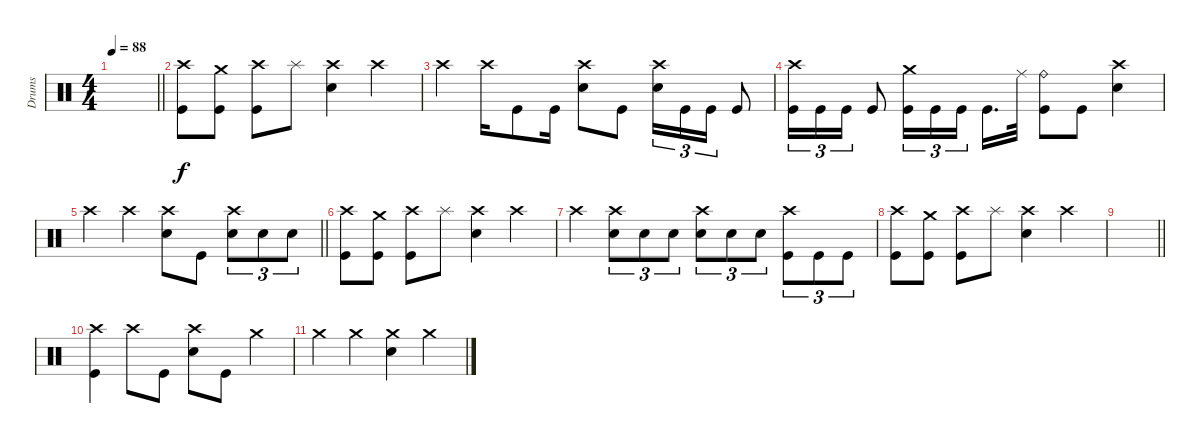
\track ("Drums" "Drums") {instrument percussion}
\staff
\articulation defaults
\ts (4 4)
\tempo 88
\clef neutral
\barLineRight lightlight
\ks c
|
\section ("" "")
("Crash high (hit)" "Kick (hit)").8 ("Crash medium (hit)" "Kick (hit)").8 ("Crash high (hit)" "Kick (hit)").8 "Splash (hit)".8 ("Crash high (hit)" "Electric Snare (hit)").4 "Crash high (hit)".4 |
"Crash high (hit)".4 "Crash high (hit)".16 "Kick (hit)".8 "Kick (hit)".16 ("Crash high (hit)" "Electric Snare (hit)").8 "Kick (hit)".8 ("Crash high (hit)" "Electric Snare (hit)").16{tu (3 2)} "Kick (hit)".16{tu (3 2)} "Kick (hit)".16{tu (3 2)} "Kick (hit)".8 |
("Crash high (hit)" "Kick (hit)").16{tu (3 2)} "Kick (hit)".16{tu (3 2)} "Kick (hit)".16{tu (3 2)} "Kick (hit)".8 ("Crash medium (hit)" "Kick (hit)").16{tu (3 2)} "Kick (hit)".16{tu (3 2)} "Kick (hit)".16{tu (3 2) beam splitsecondary} "Kick (hit)".16{d} "Ride (middle)".32 ("Ride (bell)" "Kick (hit)").8 "Kick (hit)".8 ("Crash high (hit)" "Electric Snare (hit)").4 |
\barLineRight lightlight "Crash high (hit)".4 "Crash high (hit)".4
("Crash high (hit)" "Electric Snare (hit)").8 "Kick (hit)".8 ("Crash high (hit)" "Electric Snare (hit)").8{tu (3 2)} "Electric Snare (hit)".8{tu (3 2)} "Electric Snare (hit)".8{tu (3 2)} |
("Crash high (hit)" "Kick (hit)").8 ("Crash medium (hit)" "Kick (hit)").8 ("Crash high (hit)" "Kick (hit)").8 "Splash (hit)".8 ("Crash high (hit)" "Electric Snare (hit)").4 "Crash high (hit)".4 |
"Crash high (hit)".4 ("Crash high (hit)" "Electric Snare (hit)").8{tu (3 2)} "Electric Snare (hit)".8{tu (3 2)} "Electric Snare (hit)".8{tu (3 2)} ("Crash high (hit)" "Electric Snare (hit)").8{tu (3 2)} "Electric Snare (hit)".8{tu (3 2)} "Electric Snare (hit)".8{tu (3 2)} ("Crash high (hit)" "Kick (hit)").8{tu (3 2)} "Kick (hit)".8{tu (3 2)} "Kick (hit)".8{tu (3 2)} |
("Crash high (hit)" "Kick (hit)").8 ("Crash medium (hit)" "Kick (hit)").8 ("Crash high (hit)" "Kick (hit)").8 "Splash (hit)".8 ("Crash high (hit)" "Electric Snare (hit)").4 "Crash high (hit)".4 |
\barLineRight lightlight
|
("Crash high (hit)" "Kick (hit)").4 "Crash high (hit)".8 "Kick (hit)".8 ("Crash high (hit)" "Electric Snare (hit)").8 "Kick (hit)".8 "Crash medium (hit)".4 |
"Crash medium (hit)".4 "Crash medium (hit)".4 ("Crash medium (hit)" "Electric Snare (hit)").4 "Crash medium (hit)".4
